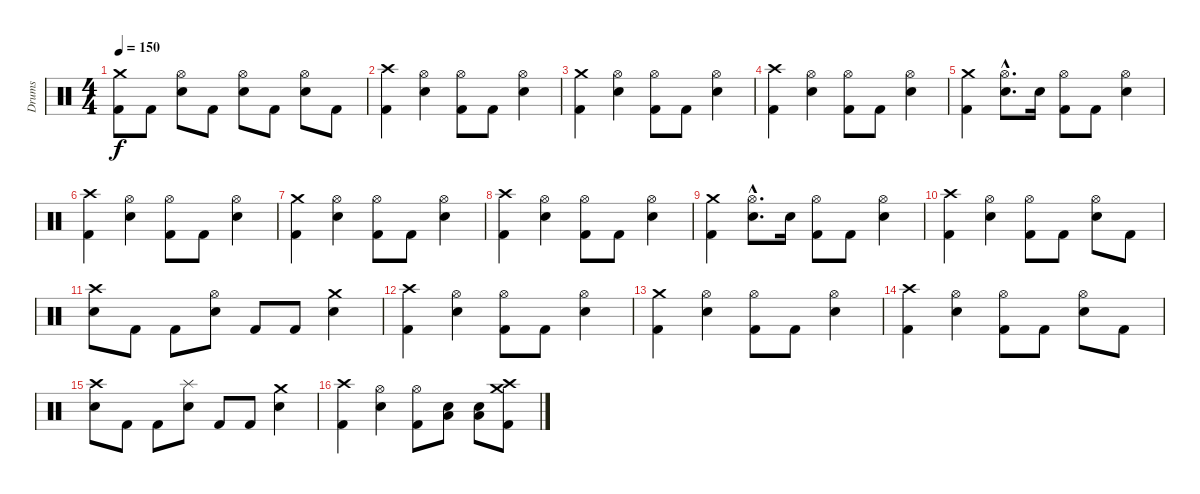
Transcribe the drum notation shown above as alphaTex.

\track ("Drums" "Drums") {instrument percussion}
\staff {score}
\articulation defaults
\ts (4 4)
\tempo 150
\clef neutral
\ks c
("Crash medium (hit)" "Kick (hit) 2").8{dy f} "Kick (hit) 2".8 ("Hi-Hat (open)" "Electric Snare (hit)").8 "Kick (hit) 2".8 ("Hi-Hat (open)" "Electric Snare (hit)").8 "Kick (hit) 2".8 ("Hi-Hat (open)" "Electric Snare (hit)").8 "Kick (hit) 2".8 |
("Crash high (hit)" "Kick (hit) 2").4 ("Hi-Hat (open)" "Electric Snare (hit)").4 ("Hi-Hat (open)" "Kick (hit) 2").8 "Kick (hit) 2".8 ("Hi-Hat (open)" "Electric Snare (hit)").4 |
("Crash medium (hit)" "Kick (hit) 2").4 ("Hi-Hat (open)" "Electric Snare (hit)").4 ("Hi-Hat (open)" "Kick (hit) 2").8 "Kick (hit) 2".8 ("Hi-Hat (open)" "Electric Snare (hit)").4 |
("Crash high (hit)" "Kick (hit) 2").4 ("Hi-Hat (open)" "Electric Snare (hit)").4 ("Hi-Hat (open)" "Kick (hit) 2").8 "Kick (hit) 2".8 ("Hi-Hat (open)" "Electric Snare (hit)").4 |
("Crash medium (hit)" "Kick (hit) 2").4 ("Hi-Hat (open)"{hac} "Electric Snare (hit)"{hac}).8{d} "Electric Snare (hit)".16 ("Hi-Hat (open)" "Kick (hit) 2").8 "Kick (hit) 2".8 ("Hi-Hat (open)" "Electric Snare (hit)").4 |
("Crash high (hit)" "Kick (hit) 2").4 ("Hi-Hat (open)" "Electric Snare (hit)").4 ("Hi-Hat (open)" "Kick (hit) 2").8 "Kick (hit) 2".8 ("Hi-Hat (open)" "Electric Snare (hit)").4 |
("Crash medium (hit)" "Kick (hit) 2").4 ("Hi-Hat (open)" "Electric Snare (hit)").4 ("Hi-Hat (open)" "Kick (hit) 2").8 "Kick (hit) 2".8 ("Hi-Hat (open)" "Electric Snare (hit)").4 |
("Crash high (hit)" "Kick (hit) 2").4 ("Hi-Hat (open)" "Electric Snare (hit)").4 ("Hi-Hat (open)" "Kick (hit) 2").8 "Kick (hit) 2".8 ("Hi-Hat (open)" "Electric Snare (hit)").4 |
("Crash medium (hit)" "Kick (hit) 2").4 ("Hi-Hat (open)"{hac} "Electric Snare (hit)"{hac}).8{d} "Electric Snare (hit)".16 ("Hi-Hat (open)" "Kick (hit) 2").8 "Kick (hit) 2".8 ("Hi-Hat (open)" "Electric Snare (hit)").4 |
("Crash high (hit)" "Kick (hit) 2").4 ("Hi-Hat (open)" "Electric Snare (hit)").4 ("Hi-Hat (open)" "Kick (hit) 2").8 "Kick (hit) 2".8 ("Hi-Hat (open)" "Electric Snare (hit)").8 "Kick (hit) 2".8 |
("Crash high (hit)" "Electric Snare (hit)").8 "Kick (hit) 2".8 "Kick (hit) 2".8 ("Hi-Hat (open)" "Electric Snare (hit)").8 "Kick (hit) 2".8 "Kick (hit) 2".8 ("Crash medium (hit)" "Electric Snare (hit)").4 |
("Crash high (hit)" "Kick (hit) 2").4 ("Hi-Hat (open)" "Electric Snare (hit)").4 ("Hi-Hat (open)" "Kick (hit) 2").8 "Kick (hit) 2".8 ("Hi-Hat (open)" "Electric Snare (hit)").4 |
("Crash medium (hit)" "Kick (hit) 2").4 ("Hi-Hat (open)" "Electric Snare (hit)").4 ("Hi-Hat (open)" "Kick (hit) 2").8 "Kick (hit) 2".8 ("Hi-Hat (open)" "Electric Snare (hit)").4 |
("Crash high (hit)" "Kick (hit) 2").4 ("Hi-Hat (open)" "Electric Snare (hit)").4 ("Hi-Hat (open)" "Kick (hit) 2").8 "Kick (hit) 2".8 ("Hi-Hat (open)" "Electric Snare (hit)").8 "Kick (hit) 2".8 |
("Crash high (hit)" "Electric Snare (hit)").8 "Kick (hit) 2".8 "Kick (hit) 2".8 ("Splash (hit)" "Electric Snare (hit)").8 "Kick (hit) 2".8 "Kick (hit) 2".8 ("Crash medium (hit)" "Electric Snare (hit)").4 |
("Crash high (hit)" "Kick (hit) 2").4 ("Hi-Hat (open)" "Electric Snare (hit)").4 ("Hi-Hat (open)" "Kick (hit) 2").8 ("Low Floor Tom (hit)" "Electric Snare (hit)").8 ("Low Floor Tom (hit)" "Electric Snare (hit)").8 ("Crash high (hit)" "Kick (hit) 2" "Crash medium (hit)").8
